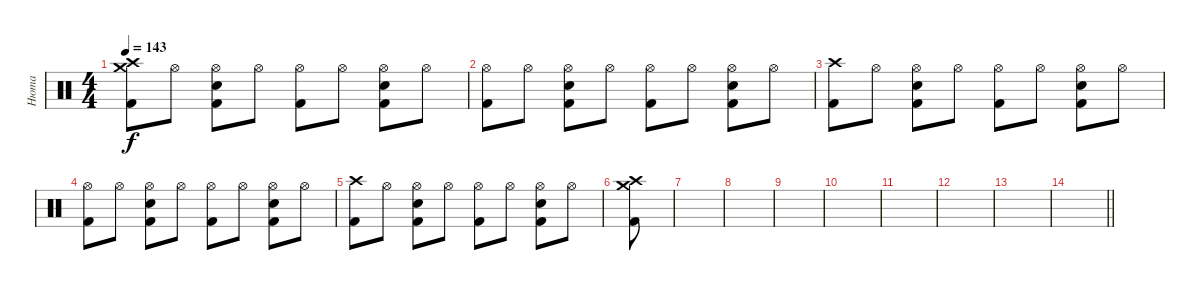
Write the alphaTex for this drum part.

\track ("Нюта" "Нюта") {instrument percussion}
\staff {score}
\articulation defaults
\ts (4 4)
\tempo 143
\clef neutral
\ks c
("Crash medium (hit)" "Crash high (hit)" "Kick (hit) 2").8{dy f} "Hi-Hat (open)".8 ("Hi-Hat (open)" "Snare (hit) 2" "Kick (hit) 2").8 "Hi-Hat (open)".8 ("Hi-Hat (open)" "Kick (hit) 2").8 "Hi-Hat (open)".8 ("Hi-Hat (open)" "Snare (hit) 2" "Kick (hit) 2").8 "Hi-Hat (open)".8 |
("Hi-Hat (open)" "Kick (hit) 2").8 "Hi-Hat (open)".8 ("Hi-Hat (open)" "Snare (hit) 2" "Kick (hit) 2").8 "Hi-Hat (open)".8 ("Hi-Hat (open)" "Kick (hit) 2").8 "Hi-Hat (open)".8 ("Hi-Hat (open)" "Snare (hit) 2" "Kick (hit) 2").8 "Hi-Hat (open)".8 |
("Crash high (hit)" "Kick (hit) 2").8 "Hi-Hat (open)".8 ("Hi-Hat (open)" "Snare (hit) 2" "Kick (hit) 2").8 "Hi-Hat (open)".8 ("Hi-Hat (open)" "Kick (hit) 2").8 "Hi-Hat (open)".8 ("Hi-Hat (open)" "Snare (hit) 2" "Kick (hit) 2").8 "Hi-Hat (open)".8 |
("Hi-Hat (open)" "Kick (hit) 2").8 "Hi-Hat (open)".8 ("Hi-Hat (open)" "Snare (hit) 2" "Kick (hit) 2").8 "Hi-Hat (open)".8 ("Hi-Hat (open)" "Kick (hit) 2").8 "Hi-Hat (open)".8 ("Hi-Hat (open)" "Snare (hit) 2" "Kick (hit) 2").8 "Hi-Hat (open)".8 |
("Crash high (hit)" "Kick (hit) 2").8 "Hi-Hat (open)".8 ("Hi-Hat (open)" "Snare (hit) 2" "Kick (hit) 2").8 "Hi-Hat (open)".8 ("Hi-Hat (open)" "Kick (hit) 2").8 "Hi-Hat (open)".8 ("Hi-Hat (open)" "Snare (hit) 2" "Kick (hit) 2").8 "Hi-Hat (open)".8 |
("Crash medium (hit)" "Crash high (hit)" "Kick (hit) 2").8 |
|
|
|
|
|
|
|
\barLineRight lightlight
